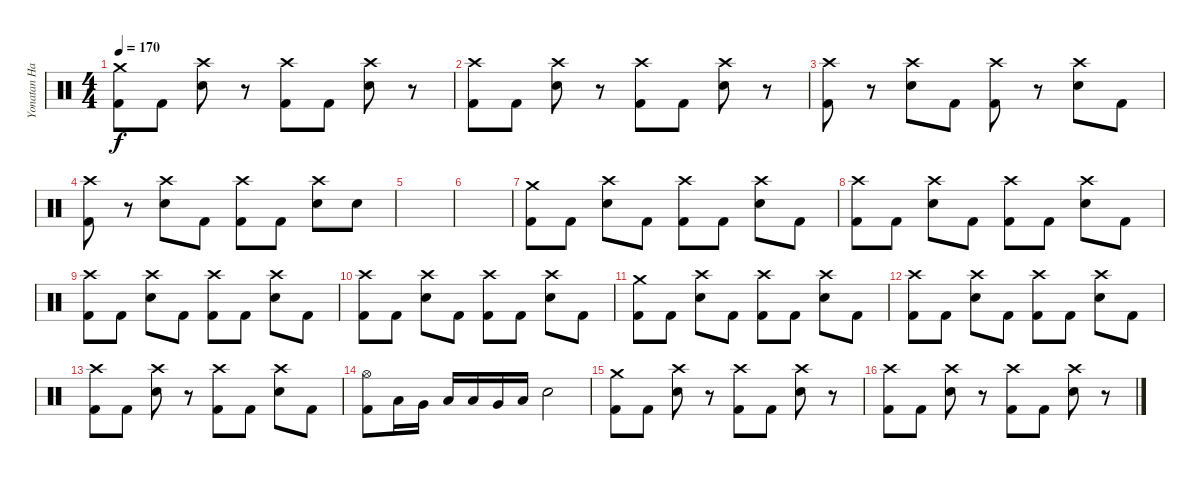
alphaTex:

\track ("Yonatan Harpak (drums)" "Yonatan Ha") {instrument percussion}
\staff {score}
\articulation defaults
\ts (4 4)
\tempo 170
\clef neutral
\ks c
("Crash medium (hit)" "Kick (hit) 2").8{dy f} "Kick (hit) 2".8 ("Crash high (hit)" "Snare (hit) 2").8 r.8 ("Crash high (hit)" "Kick (hit) 2").8 "Kick (hit) 2".8 ("Crash high (hit)" "Snare (hit) 2").8 r.8 |
("Crash high (hit)" "Kick (hit) 2").8 "Kick (hit) 2".8 ("Crash high (hit)" "Snare (hit) 2").8 r.8 ("Crash high (hit)" "Kick (hit) 2").8 "Kick (hit) 2".8 ("Crash high (hit)" "Snare (hit) 2").8 r.8 |
("Crash high (hit)" "Kick (hit) 2").8 r.8 ("Crash high (hit)" "Snare (hit) 2").8 "Kick (hit) 2".8 ("Crash high (hit)" "Kick (hit) 2").8 r.8 ("Crash high (hit)" "Snare (hit) 2").8 "Kick (hit) 2".8 |
("Crash high (hit)" "Kick (hit) 2").8 r.8 ("Crash high (hit)" "Snare (hit) 2").8 "Kick (hit) 2".8 ("Crash high (hit)" "Kick (hit) 2").8 "Kick (hit) 2".8 ("Crash high (hit)" "Snare (hit) 2").8 "Snare (hit) 2".8 |
|
|
("Crash medium (hit)" "Kick (hit) 2").8 "Kick (hit) 2".8 ("Crash high (hit)" "Snare (hit) 2").8 "Kick (hit) 2".8 ("Crash high (hit)" "Kick (hit) 2").8 "Kick (hit) 2".8 ("Crash high (hit)" "Snare (hit) 2").8 "Kick (hit) 2".8 |
("Crash high (hit)" "Kick (hit) 2").8 "Kick (hit) 2".8 ("Crash high (hit)" "Snare (hit) 2").8 "Kick (hit) 2".8 ("Crash high (hit)" "Kick (hit) 2").8 "Kick (hit) 2".8 ("Crash high (hit)" "Snare (hit) 2").8 "Kick (hit) 2".8 |
("Crash high (hit)" "Kick (hit) 2").8 "Kick (hit) 2".8 ("Crash high (hit)" "Snare (hit) 2").8 "Kick (hit) 2".8 ("Crash high (hit)" "Kick (hit) 2").8 "Kick (hit) 2".8 ("Crash high (hit)" "Snare (hit) 2").8 "Kick (hit) 2".8 |
("Crash high (hit)" "Kick (hit) 2").8 "Kick (hit) 2".8 ("Crash high (hit)" "Snare (hit) 2").8 "Kick (hit) 2".8 ("Crash high (hit)" "Kick (hit) 2").8 "Kick (hit) 2".8 ("Crash high (hit)" "Snare (hit) 2").8 "Kick (hit) 2".8 |
("Crash medium (hit)" "Kick (hit) 2").8 "Kick (hit) 2".8 ("Crash high (hit)" "Snare (hit) 2").8 "Kick (hit) 2".8 ("Crash high (hit)" "Kick (hit) 2").8 "Kick (hit) 2".8 ("Crash high (hit)" "Snare (hit) 2").8 "Kick (hit) 2".8 |
("Crash high (hit)" "Kick (hit) 2").8 "Kick (hit) 2".8 ("Crash high (hit)" "Snare (hit) 2").8 "Kick (hit) 2".8 ("Crash high (hit)" "Kick (hit) 2").8 "Kick (hit) 2".8 ("Crash high (hit)" "Snare (hit) 2").8 "Kick (hit) 2".8 |
("Crash high (hit)" "Kick (hit) 2").8 "Kick (hit) 2".8 ("Crash high (hit)" "Snare (hit) 2").8 r.8 ("Crash high (hit)" "Kick (hit) 2").8 "Kick (hit) 2".8 ("Crash high (hit)" "Snare (hit) 2").8 "Kick (hit) 2".8 |
("Hi-Hat (open)" "Kick (hit) 2").8 "Low Tom (hit)".16 "Very Low Tom (hit)".16 "Low Floor Tom (hit)".16 "Low Tom (hit)".16 "Very Low Tom (hit)".16 "Low Tom (hit)".16 "Snare (hit) 2".2 |
("Crash medium (hit)" "Kick (hit) 2").8 "Kick (hit) 2".8 ("Crash high (hit)" "Snare (hit) 2").8 r.8 ("Crash high (hit)" "Kick (hit) 2").8 "Kick (hit) 2".8 ("Crash high (hit)" "Snare (hit) 2").8 r.8 |
("Crash high (hit)" "Kick (hit) 2").8 "Kick (hit) 2".8 ("Crash high (hit)" "Snare (hit) 2").8 r.8 ("Crash high (hit)" "Kick (hit) 2").8 "Kick (hit) 2".8 ("Crash high (hit)" "Snare (hit) 2").8 r.8
